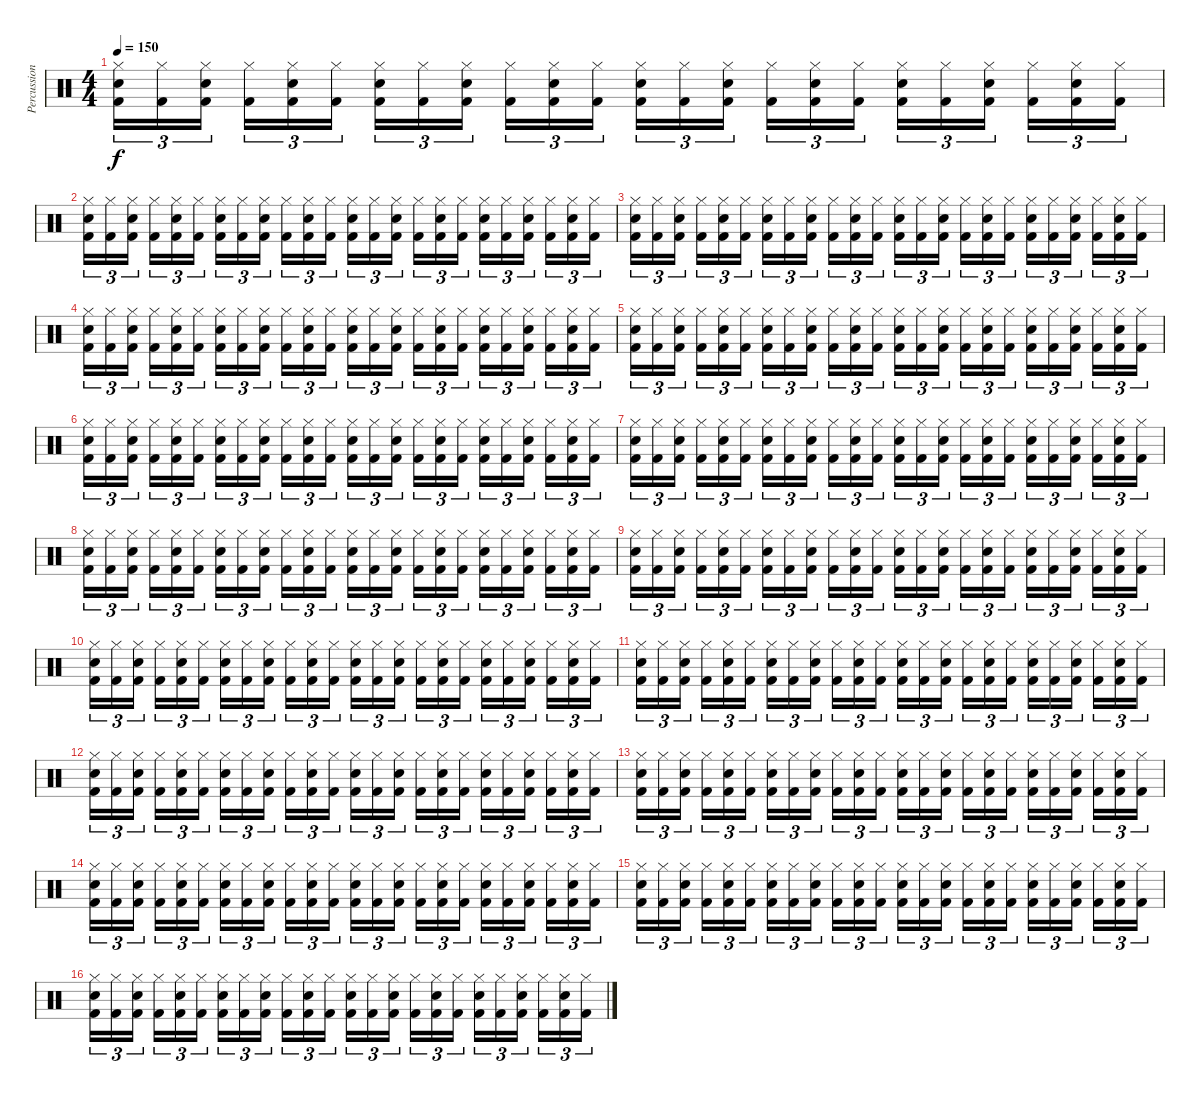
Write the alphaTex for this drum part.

\track ("Percussions" "Percussion") {instrument percussion}
\staff {score}
\articulation defaults
\ts (4 4)
\tempo 150
\clef neutral
\ks c
("Kick (hit) 2" "Electric Snare (hit)" "Hi-Hat (closed)").16{tu (3 2) dy f} ("Kick (hit) 2" "Hi-Hat (closed)").16{tu (3 2)} ("Kick (hit) 2" "Electric Snare (hit)" "Hi-Hat (closed)").16{tu (3 2) beam splitsecondary} ("Kick (hit) 2" "Hi-Hat (closed)").16{tu (3 2)} ("Kick (hit) 2" "Electric Snare (hit)" "Hi-Hat (closed)").16{tu (3 2)} ("Kick (hit) 2" "Hi-Hat (closed)").16{tu (3 2)} ("Kick (hit) 2" "Electric Snare (hit)" "Hi-Hat (closed)").16{tu (3 2)} ("Kick (hit) 2" "Hi-Hat (closed)").16{tu (3 2)} ("Kick (hit) 2" "Electric Snare (hit)" "Hi-Hat (closed)").16{tu (3 2) beam splitsecondary} ("Kick (hit) 2" "Hi-Hat (closed)").16{tu (3 2)} ("Kick (hit) 2" "Electric Snare (hit)" "Hi-Hat (closed)").16{tu (3 2)} ("Kick (hit) 2" "Hi-Hat (closed)").16{tu (3 2)} ("Kick (hit) 2" "Electric Snare (hit)" "Hi-Hat (closed)").16{tu (3 2)} ("Kick (hit) 2" "Hi-Hat (closed)").16{tu (3 2)} ("Kick (hit) 2" "Electric Snare (hit)" "Hi-Hat (closed)").16{tu (3 2) beam splitsecondary} ("Kick (hit) 2" "Hi-Hat (closed)").16{tu (3 2)} ("Kick (hit) 2" "Electric Snare (hit)" "Hi-Hat (closed)").16{tu (3 2)} ("Kick (hit) 2" "Hi-Hat (closed)").16{tu (3 2)} ("Kick (hit) 2" "Electric Snare (hit)" "Hi-Hat (closed)").16{tu (3 2)} ("Kick (hit) 2" "Hi-Hat (closed)").16{tu (3 2)} ("Kick (hit) 2" "Electric Snare (hit)" "Hi-Hat (closed)").16{tu (3 2) beam splitsecondary} ("Kick (hit) 2" "Hi-Hat (closed)").16{tu (3 2)} ("Kick (hit) 2" "Electric Snare (hit)" "Hi-Hat (closed)").16{tu (3 2)} ("Kick (hit) 2" "Hi-Hat (closed)").16{tu (3 2)} |
("Kick (hit) 2" "Electric Snare (hit)" "Hi-Hat (closed)").16{tu (3 2)} ("Kick (hit) 2" "Hi-Hat (closed)").16{tu (3 2)} ("Kick (hit) 2" "Electric Snare (hit)" "Hi-Hat (closed)").16{tu (3 2) beam splitsecondary} ("Kick (hit) 2" "Hi-Hat (closed)").16{tu (3 2)} ("Kick (hit) 2" "Electric Snare (hit)" "Hi-Hat (closed)").16{tu (3 2)} ("Kick (hit) 2" "Hi-Hat (closed)").16{tu (3 2)} ("Kick (hit) 2" "Electric Snare (hit)" "Hi-Hat (closed)").16{tu (3 2)} ("Kick (hit) 2" "Hi-Hat (closed)").16{tu (3 2)} ("Kick (hit) 2" "Electric Snare (hit)" "Hi-Hat (closed)").16{tu (3 2) beam splitsecondary} ("Kick (hit) 2" "Hi-Hat (closed)").16{tu (3 2)} ("Kick (hit) 2" "Electric Snare (hit)" "Hi-Hat (closed)").16{tu (3 2)} ("Kick (hit) 2" "Hi-Hat (closed)").16{tu (3 2)} ("Kick (hit) 2" "Electric Snare (hit)" "Hi-Hat (closed)").16{tu (3 2)} ("Kick (hit) 2" "Hi-Hat (closed)").16{tu (3 2)} ("Kick (hit) 2" "Electric Snare (hit)" "Hi-Hat (closed)").16{tu (3 2) beam splitsecondary} ("Kick (hit) 2" "Hi-Hat (closed)").16{tu (3 2)} ("Kick (hit) 2" "Electric Snare (hit)" "Hi-Hat (closed)").16{tu (3 2)} ("Kick (hit) 2" "Hi-Hat (closed)").16{tu (3 2)} ("Kick (hit) 2" "Electric Snare (hit)" "Hi-Hat (closed)").16{tu (3 2)} ("Kick (hit) 2" "Hi-Hat (closed)").16{tu (3 2)} ("Kick (hit) 2" "Electric Snare (hit)" "Hi-Hat (closed)").16{tu (3 2) beam splitsecondary} ("Kick (hit) 2" "Hi-Hat (closed)").16{tu (3 2)} ("Kick (hit) 2" "Electric Snare (hit)" "Hi-Hat (closed)").16{tu (3 2)} ("Kick (hit) 2" "Hi-Hat (closed)").16{tu (3 2)} |
("Kick (hit) 2" "Electric Snare (hit)" "Hi-Hat (closed)").16{tu (3 2)} ("Kick (hit) 2" "Hi-Hat (closed)").16{tu (3 2)} ("Kick (hit) 2" "Electric Snare (hit)" "Hi-Hat (closed)").16{tu (3 2) beam splitsecondary} ("Kick (hit) 2" "Hi-Hat (closed)").16{tu (3 2)} ("Kick (hit) 2" "Electric Snare (hit)" "Hi-Hat (closed)").16{tu (3 2)} ("Kick (hit) 2" "Hi-Hat (closed)").16{tu (3 2)} ("Kick (hit) 2" "Electric Snare (hit)" "Hi-Hat (closed)").16{tu (3 2)} ("Kick (hit) 2" "Hi-Hat (closed)").16{tu (3 2)} ("Kick (hit) 2" "Electric Snare (hit)" "Hi-Hat (closed)").16{tu (3 2) beam splitsecondary} ("Kick (hit) 2" "Hi-Hat (closed)").16{tu (3 2)} ("Kick (hit) 2" "Electric Snare (hit)" "Hi-Hat (closed)").16{tu (3 2)} ("Kick (hit) 2" "Hi-Hat (closed)").16{tu (3 2)} ("Kick (hit) 2" "Electric Snare (hit)" "Hi-Hat (closed)").16{tu (3 2)} ("Kick (hit) 2" "Hi-Hat (closed)").16{tu (3 2)} ("Kick (hit) 2" "Electric Snare (hit)" "Hi-Hat (closed)").16{tu (3 2) beam splitsecondary} ("Kick (hit) 2" "Hi-Hat (closed)").16{tu (3 2)} ("Kick (hit) 2" "Electric Snare (hit)" "Hi-Hat (closed)").16{tu (3 2)} ("Kick (hit) 2" "Hi-Hat (closed)").16{tu (3 2)} ("Kick (hit) 2" "Electric Snare (hit)" "Hi-Hat (closed)").16{tu (3 2)} ("Kick (hit) 2" "Hi-Hat (closed)").16{tu (3 2)} ("Kick (hit) 2" "Electric Snare (hit)" "Hi-Hat (closed)").16{tu (3 2) beam splitsecondary} ("Kick (hit) 2" "Hi-Hat (closed)").16{tu (3 2)} ("Kick (hit) 2" "Electric Snare (hit)" "Hi-Hat (closed)").16{tu (3 2)} ("Kick (hit) 2" "Hi-Hat (closed)").16{tu (3 2)} |
("Kick (hit) 2" "Electric Snare (hit)" "Hi-Hat (closed)").16{tu (3 2)} ("Kick (hit) 2" "Hi-Hat (closed)").16{tu (3 2)} ("Kick (hit) 2" "Electric Snare (hit)" "Hi-Hat (closed)").16{tu (3 2) beam splitsecondary} ("Kick (hit) 2" "Hi-Hat (closed)").16{tu (3 2)} ("Kick (hit) 2" "Electric Snare (hit)" "Hi-Hat (closed)").16{tu (3 2)} ("Kick (hit) 2" "Hi-Hat (closed)").16{tu (3 2)} ("Kick (hit) 2" "Electric Snare (hit)" "Hi-Hat (closed)").16{tu (3 2)} ("Kick (hit) 2" "Hi-Hat (closed)").16{tu (3 2)} ("Kick (hit) 2" "Electric Snare (hit)" "Hi-Hat (closed)").16{tu (3 2) beam splitsecondary} ("Kick (hit) 2" "Hi-Hat (closed)").16{tu (3 2)} ("Kick (hit) 2" "Electric Snare (hit)" "Hi-Hat (closed)").16{tu (3 2)} ("Kick (hit) 2" "Hi-Hat (closed)").16{tu (3 2)} ("Kick (hit) 2" "Electric Snare (hit)" "Hi-Hat (closed)").16{tu (3 2)} ("Kick (hit) 2" "Hi-Hat (closed)").16{tu (3 2)} ("Kick (hit) 2" "Electric Snare (hit)" "Hi-Hat (closed)").16{tu (3 2) beam splitsecondary} ("Kick (hit) 2" "Hi-Hat (closed)").16{tu (3 2)} ("Kick (hit) 2" "Electric Snare (hit)" "Hi-Hat (closed)").16{tu (3 2)} ("Kick (hit) 2" "Hi-Hat (closed)").16{tu (3 2)} ("Kick (hit) 2" "Electric Snare (hit)" "Hi-Hat (closed)").16{tu (3 2)} ("Kick (hit) 2" "Hi-Hat (closed)").16{tu (3 2)} ("Kick (hit) 2" "Electric Snare (hit)" "Hi-Hat (closed)").16{tu (3 2) beam splitsecondary} ("Kick (hit) 2" "Hi-Hat (closed)").16{tu (3 2)} ("Kick (hit) 2" "Electric Snare (hit)" "Hi-Hat (closed)").16{tu (3 2)} ("Kick (hit) 2" "Hi-Hat (closed)").16{tu (3 2)} |
("Kick (hit) 2" "Electric Snare (hit)" "Hi-Hat (closed)").16{tu (3 2)} ("Kick (hit) 2" "Hi-Hat (closed)").16{tu (3 2)} ("Kick (hit) 2" "Electric Snare (hit)" "Hi-Hat (closed)").16{tu (3 2) beam splitsecondary} ("Kick (hit) 2" "Hi-Hat (closed)").16{tu (3 2)} ("Kick (hit) 2" "Electric Snare (hit)" "Hi-Hat (closed)").16{tu (3 2)} ("Kick (hit) 2" "Hi-Hat (closed)").16{tu (3 2)} ("Kick (hit) 2" "Electric Snare (hit)" "Hi-Hat (closed)").16{tu (3 2)} ("Kick (hit) 2" "Hi-Hat (closed)").16{tu (3 2)} ("Kick (hit) 2" "Electric Snare (hit)" "Hi-Hat (closed)").16{tu (3 2) beam splitsecondary} ("Kick (hit) 2" "Hi-Hat (closed)").16{tu (3 2)} ("Kick (hit) 2" "Electric Snare (hit)" "Hi-Hat (closed)").16{tu (3 2)} ("Kick (hit) 2" "Hi-Hat (closed)").16{tu (3 2)} ("Kick (hit) 2" "Electric Snare (hit)" "Hi-Hat (closed)").16{tu (3 2)} ("Kick (hit) 2" "Hi-Hat (closed)").16{tu (3 2)} ("Kick (hit) 2" "Electric Snare (hit)" "Hi-Hat (closed)").16{tu (3 2) beam splitsecondary} ("Kick (hit) 2" "Hi-Hat (closed)").16{tu (3 2)} ("Kick (hit) 2" "Electric Snare (hit)" "Hi-Hat (closed)").16{tu (3 2)} ("Kick (hit) 2" "Hi-Hat (closed)").16{tu (3 2)} ("Kick (hit) 2" "Electric Snare (hit)" "Hi-Hat (closed)").16{tu (3 2)} ("Kick (hit) 2" "Hi-Hat (closed)").16{tu (3 2)} ("Kick (hit) 2" "Electric Snare (hit)" "Hi-Hat (closed)").16{tu (3 2) beam splitsecondary} ("Kick (hit) 2" "Hi-Hat (closed)").16{tu (3 2)} ("Kick (hit) 2" "Electric Snare (hit)" "Hi-Hat (closed)").16{tu (3 2)} ("Kick (hit) 2" "Hi-Hat (closed)").16{tu (3 2)} |
("Kick (hit) 2" "Electric Snare (hit)" "Hi-Hat (closed)").16{tu (3 2)} ("Kick (hit) 2" "Hi-Hat (closed)").16{tu (3 2)} ("Kick (hit) 2" "Electric Snare (hit)" "Hi-Hat (closed)").16{tu (3 2) beam splitsecondary} ("Kick (hit) 2" "Hi-Hat (closed)").16{tu (3 2)} ("Kick (hit) 2" "Electric Snare (hit)" "Hi-Hat (closed)").16{tu (3 2)} ("Kick (hit) 2" "Hi-Hat (closed)").16{tu (3 2)} ("Kick (hit) 2" "Electric Snare (hit)" "Hi-Hat (closed)").16{tu (3 2)} ("Kick (hit) 2" "Hi-Hat (closed)").16{tu (3 2)} ("Kick (hit) 2" "Electric Snare (hit)" "Hi-Hat (closed)").16{tu (3 2) beam splitsecondary} ("Kick (hit) 2" "Hi-Hat (closed)").16{tu (3 2)} ("Kick (hit) 2" "Electric Snare (hit)" "Hi-Hat (closed)").16{tu (3 2)} ("Kick (hit) 2" "Hi-Hat (closed)").16{tu (3 2)} ("Kick (hit) 2" "Electric Snare (hit)" "Hi-Hat (closed)").16{tu (3 2)} ("Kick (hit) 2" "Hi-Hat (closed)").16{tu (3 2)} ("Kick (hit) 2" "Electric Snare (hit)" "Hi-Hat (closed)").16{tu (3 2) beam splitsecondary} ("Kick (hit) 2" "Hi-Hat (closed)").16{tu (3 2)} ("Kick (hit) 2" "Electric Snare (hit)" "Hi-Hat (closed)").16{tu (3 2)} ("Kick (hit) 2" "Hi-Hat (closed)").16{tu (3 2)} ("Kick (hit) 2" "Electric Snare (hit)" "Hi-Hat (closed)").16{tu (3 2)} ("Kick (hit) 2" "Hi-Hat (closed)").16{tu (3 2)} ("Kick (hit) 2" "Electric Snare (hit)" "Hi-Hat (closed)").16{tu (3 2) beam splitsecondary} ("Kick (hit) 2" "Hi-Hat (closed)").16{tu (3 2)} ("Kick (hit) 2" "Electric Snare (hit)" "Hi-Hat (closed)").16{tu (3 2)} ("Kick (hit) 2" "Hi-Hat (closed)").16{tu (3 2)} |
("Kick (hit) 2" "Electric Snare (hit)" "Hi-Hat (closed)").16{tu (3 2)} ("Kick (hit) 2" "Hi-Hat (closed)").16{tu (3 2)} ("Kick (hit) 2" "Electric Snare (hit)" "Hi-Hat (closed)").16{tu (3 2) beam splitsecondary} ("Kick (hit) 2" "Hi-Hat (closed)").16{tu (3 2)} ("Kick (hit) 2" "Electric Snare (hit)" "Hi-Hat (closed)").16{tu (3 2)} ("Kick (hit) 2" "Hi-Hat (closed)").16{tu (3 2)} ("Kick (hit) 2" "Electric Snare (hit)" "Hi-Hat (closed)").16{tu (3 2)} ("Kick (hit) 2" "Hi-Hat (closed)").16{tu (3 2)} ("Kick (hit) 2" "Electric Snare (hit)" "Hi-Hat (closed)").16{tu (3 2) beam splitsecondary} ("Kick (hit) 2" "Hi-Hat (closed)").16{tu (3 2)} ("Kick (hit) 2" "Electric Snare (hit)" "Hi-Hat (closed)").16{tu (3 2)} ("Kick (hit) 2" "Hi-Hat (closed)").16{tu (3 2)} ("Kick (hit) 2" "Electric Snare (hit)" "Hi-Hat (closed)").16{tu (3 2)} ("Kick (hit) 2" "Hi-Hat (closed)").16{tu (3 2)} ("Kick (hit) 2" "Electric Snare (hit)" "Hi-Hat (closed)").16{tu (3 2) beam splitsecondary} ("Kick (hit) 2" "Hi-Hat (closed)").16{tu (3 2)} ("Kick (hit) 2" "Electric Snare (hit)" "Hi-Hat (closed)").16{tu (3 2)} ("Kick (hit) 2" "Hi-Hat (closed)").16{tu (3 2)} ("Kick (hit) 2" "Electric Snare (hit)" "Hi-Hat (closed)").16{tu (3 2)} ("Kick (hit) 2" "Hi-Hat (closed)").16{tu (3 2)} ("Kick (hit) 2" "Electric Snare (hit)" "Hi-Hat (closed)").16{tu (3 2) beam splitsecondary} ("Kick (hit) 2" "Hi-Hat (closed)").16{tu (3 2)} ("Kick (hit) 2" "Electric Snare (hit)" "Hi-Hat (closed)").16{tu (3 2)} ("Kick (hit) 2" "Hi-Hat (closed)").16{tu (3 2)} |
("Kick (hit) 2" "Electric Snare (hit)" "Hi-Hat (closed)").16{tu (3 2)} ("Kick (hit) 2" "Hi-Hat (closed)").16{tu (3 2)} ("Kick (hit) 2" "Electric Snare (hit)" "Hi-Hat (closed)").16{tu (3 2) beam splitsecondary} ("Kick (hit) 2" "Hi-Hat (closed)").16{tu (3 2)} ("Kick (hit) 2" "Electric Snare (hit)" "Hi-Hat (closed)").16{tu (3 2)} ("Kick (hit) 2" "Hi-Hat (closed)").16{tu (3 2)} ("Kick (hit) 2" "Electric Snare (hit)" "Hi-Hat (closed)").16{tu (3 2)} ("Kick (hit) 2" "Hi-Hat (closed)").16{tu (3 2)} ("Kick (hit) 2" "Electric Snare (hit)" "Hi-Hat (closed)").16{tu (3 2) beam splitsecondary} ("Kick (hit) 2" "Hi-Hat (closed)").16{tu (3 2)} ("Kick (hit) 2" "Electric Snare (hit)" "Hi-Hat (closed)").16{tu (3 2)} ("Kick (hit) 2" "Hi-Hat (closed)").16{tu (3 2)} ("Kick (hit) 2" "Electric Snare (hit)" "Hi-Hat (closed)").16{tu (3 2)} ("Kick (hit) 2" "Hi-Hat (closed)").16{tu (3 2)} ("Kick (hit) 2" "Electric Snare (hit)" "Hi-Hat (closed)").16{tu (3 2) beam splitsecondary} ("Kick (hit) 2" "Hi-Hat (closed)").16{tu (3 2)} ("Kick (hit) 2" "Electric Snare (hit)" "Hi-Hat (closed)").16{tu (3 2)} ("Kick (hit) 2" "Hi-Hat (closed)").16{tu (3 2)} ("Kick (hit) 2" "Electric Snare (hit)" "Hi-Hat (closed)").16{tu (3 2)} ("Kick (hit) 2" "Hi-Hat (closed)").16{tu (3 2)} ("Kick (hit) 2" "Electric Snare (hit)" "Hi-Hat (closed)").16{tu (3 2) beam splitsecondary} ("Kick (hit) 2" "Hi-Hat (closed)").16{tu (3 2)} ("Kick (hit) 2" "Electric Snare (hit)" "Hi-Hat (closed)").16{tu (3 2)} ("Kick (hit) 2" "Hi-Hat (closed)").16{tu (3 2)} |
("Kick (hit) 2" "Electric Snare (hit)" "Hi-Hat (closed)").16{tu (3 2)} ("Kick (hit) 2" "Hi-Hat (closed)").16{tu (3 2)} ("Kick (hit) 2" "Electric Snare (hit)" "Hi-Hat (closed)").16{tu (3 2) beam splitsecondary} ("Kick (hit) 2" "Hi-Hat (closed)").16{tu (3 2)} ("Kick (hit) 2" "Electric Snare (hit)" "Hi-Hat (closed)").16{tu (3 2)} ("Kick (hit) 2" "Hi-Hat (closed)").16{tu (3 2)} ("Kick (hit) 2" "Electric Snare (hit)" "Hi-Hat (closed)").16{tu (3 2)} ("Kick (hit) 2" "Hi-Hat (closed)").16{tu (3 2)} ("Kick (hit) 2" "Electric Snare (hit)" "Hi-Hat (closed)").16{tu (3 2) beam splitsecondary} ("Kick (hit) 2" "Hi-Hat (closed)").16{tu (3 2)} ("Kick (hit) 2" "Electric Snare (hit)" "Hi-Hat (closed)").16{tu (3 2)} ("Kick (hit) 2" "Hi-Hat (closed)").16{tu (3 2)} ("Kick (hit) 2" "Electric Snare (hit)" "Hi-Hat (closed)").16{tu (3 2)} ("Kick (hit) 2" "Hi-Hat (closed)").16{tu (3 2)} ("Kick (hit) 2" "Electric Snare (hit)" "Hi-Hat (closed)").16{tu (3 2) beam splitsecondary} ("Kick (hit) 2" "Hi-Hat (closed)").16{tu (3 2)} ("Kick (hit) 2" "Electric Snare (hit)" "Hi-Hat (closed)").16{tu (3 2)} ("Kick (hit) 2" "Hi-Hat (closed)").16{tu (3 2)} ("Kick (hit) 2" "Electric Snare (hit)" "Hi-Hat (closed)").16{tu (3 2)} ("Kick (hit) 2" "Hi-Hat (closed)").16{tu (3 2)} ("Kick (hit) 2" "Electric Snare (hit)" "Hi-Hat (closed)").16{tu (3 2) beam splitsecondary} ("Kick (hit) 2" "Hi-Hat (closed)").16{tu (3 2)} ("Kick (hit) 2" "Electric Snare (hit)" "Hi-Hat (closed)").16{tu (3 2)} ("Kick (hit) 2" "Hi-Hat (closed)").16{tu (3 2)} |
("Kick (hit) 2" "Electric Snare (hit)" "Hi-Hat (closed)").16{tu (3 2)} ("Kick (hit) 2" "Hi-Hat (closed)").16{tu (3 2)} ("Kick (hit) 2" "Electric Snare (hit)" "Hi-Hat (closed)").16{tu (3 2) beam splitsecondary} ("Kick (hit) 2" "Hi-Hat (closed)").16{tu (3 2)} ("Kick (hit) 2" "Electric Snare (hit)" "Hi-Hat (closed)").16{tu (3 2)} ("Kick (hit) 2" "Hi-Hat (closed)").16{tu (3 2)} ("Kick (hit) 2" "Electric Snare (hit)" "Hi-Hat (closed)").16{tu (3 2)} ("Kick (hit) 2" "Hi-Hat (closed)").16{tu (3 2)} ("Kick (hit) 2" "Electric Snare (hit)" "Hi-Hat (closed)").16{tu (3 2) beam splitsecondary} ("Kick (hit) 2" "Hi-Hat (closed)").16{tu (3 2)} ("Kick (hit) 2" "Electric Snare (hit)" "Hi-Hat (closed)").16{tu (3 2)} ("Kick (hit) 2" "Hi-Hat (closed)").16{tu (3 2)} ("Kick (hit) 2" "Electric Snare (hit)" "Hi-Hat (closed)").16{tu (3 2)} ("Kick (hit) 2" "Hi-Hat (closed)").16{tu (3 2)} ("Kick (hit) 2" "Electric Snare (hit)" "Hi-Hat (closed)").16{tu (3 2) beam splitsecondary} ("Kick (hit) 2" "Hi-Hat (closed)").16{tu (3 2)} ("Kick (hit) 2" "Electric Snare (hit)" "Hi-Hat (closed)").16{tu (3 2)} ("Kick (hit) 2" "Hi-Hat (closed)").16{tu (3 2)} ("Kick (hit) 2" "Electric Snare (hit)" "Hi-Hat (closed)").16{tu (3 2)} ("Kick (hit) 2" "Hi-Hat (closed)").16{tu (3 2)} ("Kick (hit) 2" "Electric Snare (hit)" "Hi-Hat (closed)").16{tu (3 2) beam splitsecondary} ("Kick (hit) 2" "Hi-Hat (closed)").16{tu (3 2)} ("Kick (hit) 2" "Electric Snare (hit)" "Hi-Hat (closed)").16{tu (3 2)} ("Kick (hit) 2" "Hi-Hat (closed)").16{tu (3 2)} |
("Kick (hit) 2" "Electric Snare (hit)" "Hi-Hat (closed)").16{tu (3 2)} ("Kick (hit) 2" "Hi-Hat (closed)").16{tu (3 2)} ("Kick (hit) 2" "Electric Snare (hit)" "Hi-Hat (closed)").16{tu (3 2) beam splitsecondary} ("Kick (hit) 2" "Hi-Hat (closed)").16{tu (3 2)} ("Kick (hit) 2" "Electric Snare (hit)" "Hi-Hat (closed)").16{tu (3 2)} ("Kick (hit) 2" "Hi-Hat (closed)").16{tu (3 2)} ("Kick (hit) 2" "Electric Snare (hit)" "Hi-Hat (closed)").16{tu (3 2)} ("Kick (hit) 2" "Hi-Hat (closed)").16{tu (3 2)} ("Kick (hit) 2" "Electric Snare (hit)" "Hi-Hat (closed)").16{tu (3 2) beam splitsecondary} ("Kick (hit) 2" "Hi-Hat (closed)").16{tu (3 2)} ("Kick (hit) 2" "Electric Snare (hit)" "Hi-Hat (closed)").16{tu (3 2)} ("Kick (hit) 2" "Hi-Hat (closed)").16{tu (3 2)} ("Kick (hit) 2" "Electric Snare (hit)" "Hi-Hat (closed)").16{tu (3 2)} ("Kick (hit) 2" "Hi-Hat (closed)").16{tu (3 2)} ("Kick (hit) 2" "Electric Snare (hit)" "Hi-Hat (closed)").16{tu (3 2) beam splitsecondary} ("Kick (hit) 2" "Hi-Hat (closed)").16{tu (3 2)} ("Kick (hit) 2" "Electric Snare (hit)" "Hi-Hat (closed)").16{tu (3 2)} ("Kick (hit) 2" "Hi-Hat (closed)").16{tu (3 2)} ("Kick (hit) 2" "Electric Snare (hit)" "Hi-Hat (closed)").16{tu (3 2)} ("Kick (hit) 2" "Hi-Hat (closed)").16{tu (3 2)} ("Kick (hit) 2" "Electric Snare (hit)" "Hi-Hat (closed)").16{tu (3 2) beam splitsecondary} ("Kick (hit) 2" "Hi-Hat (closed)").16{tu (3 2)} ("Kick (hit) 2" "Electric Snare (hit)" "Hi-Hat (closed)").16{tu (3 2)} ("Kick (hit) 2" "Hi-Hat (closed)").16{tu (3 2)} |
("Kick (hit) 2" "Electric Snare (hit)" "Hi-Hat (closed)").16{tu (3 2)} ("Kick (hit) 2" "Hi-Hat (closed)").16{tu (3 2)} ("Kick (hit) 2" "Electric Snare (hit)" "Hi-Hat (closed)").16{tu (3 2) beam splitsecondary} ("Kick (hit) 2" "Hi-Hat (closed)").16{tu (3 2)} ("Kick (hit) 2" "Electric Snare (hit)" "Hi-Hat (closed)").16{tu (3 2)} ("Kick (hit) 2" "Hi-Hat (closed)").16{tu (3 2)} ("Kick (hit) 2" "Electric Snare (hit)" "Hi-Hat (closed)").16{tu (3 2)} ("Kick (hit) 2" "Hi-Hat (closed)").16{tu (3 2)} ("Kick (hit) 2" "Electric Snare (hit)" "Hi-Hat (closed)").16{tu (3 2) beam splitsecondary} ("Kick (hit) 2" "Hi-Hat (closed)").16{tu (3 2)} ("Kick (hit) 2" "Electric Snare (hit)" "Hi-Hat (closed)").16{tu (3 2)} ("Kick (hit) 2" "Hi-Hat (closed)").16{tu (3 2)} ("Kick (hit) 2" "Electric Snare (hit)" "Hi-Hat (closed)").16{tu (3 2)} ("Kick (hit) 2" "Hi-Hat (closed)").16{tu (3 2)} ("Kick (hit) 2" "Electric Snare (hit)" "Hi-Hat (closed)").16{tu (3 2) beam splitsecondary} ("Kick (hit) 2" "Hi-Hat (closed)").16{tu (3 2)} ("Kick (hit) 2" "Electric Snare (hit)" "Hi-Hat (closed)").16{tu (3 2)} ("Kick (hit) 2" "Hi-Hat (closed)").16{tu (3 2)} ("Kick (hit) 2" "Electric Snare (hit)" "Hi-Hat (closed)").16{tu (3 2)} ("Kick (hit) 2" "Hi-Hat (closed)").16{tu (3 2)} ("Kick (hit) 2" "Electric Snare (hit)" "Hi-Hat (closed)").16{tu (3 2) beam splitsecondary} ("Kick (hit) 2" "Hi-Hat (closed)").16{tu (3 2)} ("Kick (hit) 2" "Electric Snare (hit)" "Hi-Hat (closed)").16{tu (3 2)} ("Kick (hit) 2" "Hi-Hat (closed)").16{tu (3 2)} |
("Kick (hit) 2" "Electric Snare (hit)" "Hi-Hat (closed)").16{tu (3 2)} ("Kick (hit) 2" "Hi-Hat (closed)").16{tu (3 2)} ("Kick (hit) 2" "Electric Snare (hit)" "Hi-Hat (closed)").16{tu (3 2) beam splitsecondary} ("Kick (hit) 2" "Hi-Hat (closed)").16{tu (3 2)} ("Kick (hit) 2" "Electric Snare (hit)" "Hi-Hat (closed)").16{tu (3 2)} ("Kick (hit) 2" "Hi-Hat (closed)").16{tu (3 2)} ("Kick (hit) 2" "Electric Snare (hit)" "Hi-Hat (closed)").16{tu (3 2)} ("Kick (hit) 2" "Hi-Hat (closed)").16{tu (3 2)} ("Kick (hit) 2" "Electric Snare (hit)" "Hi-Hat (closed)").16{tu (3 2) beam splitsecondary} ("Kick (hit) 2" "Hi-Hat (closed)").16{tu (3 2)} ("Kick (hit) 2" "Electric Snare (hit)" "Hi-Hat (closed)").16{tu (3 2)} ("Kick (hit) 2" "Hi-Hat (closed)").16{tu (3 2)} ("Kick (hit) 2" "Electric Snare (hit)" "Hi-Hat (closed)").16{tu (3 2)} ("Kick (hit) 2" "Hi-Hat (closed)").16{tu (3 2)} ("Kick (hit) 2" "Electric Snare (hit)" "Hi-Hat (closed)").16{tu (3 2) beam splitsecondary} ("Kick (hit) 2" "Hi-Hat (closed)").16{tu (3 2)} ("Kick (hit) 2" "Electric Snare (hit)" "Hi-Hat (closed)").16{tu (3 2)} ("Kick (hit) 2" "Hi-Hat (closed)").16{tu (3 2)} ("Kick (hit) 2" "Electric Snare (hit)" "Hi-Hat (closed)").16{tu (3 2)} ("Kick (hit) 2" "Hi-Hat (closed)").16{tu (3 2)} ("Kick (hit) 2" "Electric Snare (hit)" "Hi-Hat (closed)").16{tu (3 2) beam splitsecondary} ("Kick (hit) 2" "Hi-Hat (closed)").16{tu (3 2)} ("Kick (hit) 2" "Electric Snare (hit)" "Hi-Hat (closed)").16{tu (3 2)} ("Kick (hit) 2" "Hi-Hat (closed)").16{tu (3 2)} |
("Kick (hit) 2" "Electric Snare (hit)" "Hi-Hat (closed)").16{tu (3 2)} ("Kick (hit) 2" "Hi-Hat (closed)").16{tu (3 2)} ("Kick (hit) 2" "Electric Snare (hit)" "Hi-Hat (closed)").16{tu (3 2) beam splitsecondary} ("Kick (hit) 2" "Hi-Hat (closed)").16{tu (3 2)} ("Kick (hit) 2" "Electric Snare (hit)" "Hi-Hat (closed)").16{tu (3 2)} ("Kick (hit) 2" "Hi-Hat (closed)").16{tu (3 2)} ("Kick (hit) 2" "Electric Snare (hit)" "Hi-Hat (closed)").16{tu (3 2)} ("Kick (hit) 2" "Hi-Hat (closed)").16{tu (3 2)} ("Kick (hit) 2" "Electric Snare (hit)" "Hi-Hat (closed)").16{tu (3 2) beam splitsecondary} ("Kick (hit) 2" "Hi-Hat (closed)").16{tu (3 2)} ("Kick (hit) 2" "Electric Snare (hit)" "Hi-Hat (closed)").16{tu (3 2)} ("Kick (hit) 2" "Hi-Hat (closed)").16{tu (3 2)} ("Kick (hit) 2" "Electric Snare (hit)" "Hi-Hat (closed)").16{tu (3 2)} ("Kick (hit) 2" "Hi-Hat (closed)").16{tu (3 2)} ("Kick (hit) 2" "Electric Snare (hit)" "Hi-Hat (closed)").16{tu (3 2) beam splitsecondary} ("Kick (hit) 2" "Hi-Hat (closed)").16{tu (3 2)} ("Kick (hit) 2" "Electric Snare (hit)" "Hi-Hat (closed)").16{tu (3 2)} ("Kick (hit) 2" "Hi-Hat (closed)").16{tu (3 2)} ("Kick (hit) 2" "Electric Snare (hit)" "Hi-Hat (closed)").16{tu (3 2)} ("Kick (hit) 2" "Hi-Hat (closed)").16{tu (3 2)} ("Kick (hit) 2" "Electric Snare (hit)" "Hi-Hat (closed)").16{tu (3 2) beam splitsecondary} ("Kick (hit) 2" "Hi-Hat (closed)").16{tu (3 2)} ("Kick (hit) 2" "Electric Snare (hit)" "Hi-Hat (closed)").16{tu (3 2)} ("Kick (hit) 2" "Hi-Hat (closed)").16{tu (3 2)} |
("Kick (hit) 2" "Electric Snare (hit)" "Hi-Hat (closed)").16{tu (3 2)} ("Kick (hit) 2" "Hi-Hat (closed)").16{tu (3 2)} ("Kick (hit) 2" "Electric Snare (hit)" "Hi-Hat (closed)").16{tu (3 2) beam splitsecondary} ("Kick (hit) 2" "Hi-Hat (closed)").16{tu (3 2)} ("Kick (hit) 2" "Electric Snare (hit)" "Hi-Hat (closed)").16{tu (3 2)} ("Kick (hit) 2" "Hi-Hat (closed)").16{tu (3 2)} ("Kick (hit) 2" "Electric Snare (hit)" "Hi-Hat (closed)").16{tu (3 2)} ("Kick (hit) 2" "Hi-Hat (closed)").16{tu (3 2)} ("Kick (hit) 2" "Electric Snare (hit)" "Hi-Hat (closed)").16{tu (3 2) beam splitsecondary} ("Kick (hit) 2" "Hi-Hat (closed)").16{tu (3 2)} ("Kick (hit) 2" "Electric Snare (hit)" "Hi-Hat (closed)").16{tu (3 2)} ("Kick (hit) 2" "Hi-Hat (closed)").16{tu (3 2)} ("Kick (hit) 2" "Electric Snare (hit)" "Hi-Hat (closed)").16{tu (3 2)} ("Kick (hit) 2" "Hi-Hat (closed)").16{tu (3 2)} ("Kick (hit) 2" "Electric Snare (hit)" "Hi-Hat (closed)").16{tu (3 2) beam splitsecondary} ("Kick (hit) 2" "Hi-Hat (closed)").16{tu (3 2)} ("Kick (hit) 2" "Electric Snare (hit)" "Hi-Hat (closed)").16{tu (3 2)} ("Kick (hit) 2" "Hi-Hat (closed)").16{tu (3 2)} ("Kick (hit) 2" "Electric Snare (hit)" "Hi-Hat (closed)").16{tu (3 2)} ("Kick (hit) 2" "Hi-Hat (closed)").16{tu (3 2)} ("Kick (hit) 2" "Electric Snare (hit)" "Hi-Hat (closed)").16{tu (3 2) beam splitsecondary} ("Kick (hit) 2" "Hi-Hat (closed)").16{tu (3 2)} ("Kick (hit) 2" "Electric Snare (hit)" "Hi-Hat (closed)").16{tu (3 2)} ("Kick (hit) 2" "Hi-Hat (closed)").16{tu (3 2)} |
("Kick (hit) 2" "Electric Snare (hit)" "Hi-Hat (closed)").16{tu (3 2)} ("Kick (hit) 2" "Hi-Hat (closed)").16{tu (3 2)} ("Kick (hit) 2" "Electric Snare (hit)" "Hi-Hat (closed)").16{tu (3 2) beam splitsecondary} ("Kick (hit) 2" "Hi-Hat (closed)").16{tu (3 2)} ("Kick (hit) 2" "Electric Snare (hit)" "Hi-Hat (closed)").16{tu (3 2)} ("Kick (hit) 2" "Hi-Hat (closed)").16{tu (3 2)} ("Kick (hit) 2" "Electric Snare (hit)" "Hi-Hat (closed)").16{tu (3 2)} ("Kick (hit) 2" "Hi-Hat (closed)").16{tu (3 2)} ("Kick (hit) 2" "Electric Snare (hit)" "Hi-Hat (closed)").16{tu (3 2) beam splitsecondary} ("Kick (hit) 2" "Hi-Hat (closed)").16{tu (3 2)} ("Kick (hit) 2" "Electric Snare (hit)" "Hi-Hat (closed)").16{tu (3 2)} ("Kick (hit) 2" "Hi-Hat (closed)").16{tu (3 2)} ("Kick (hit) 2" "Electric Snare (hit)" "Hi-Hat (closed)").16{tu (3 2)} ("Kick (hit) 2" "Hi-Hat (closed)").16{tu (3 2)} ("Kick (hit) 2" "Electric Snare (hit)" "Hi-Hat (closed)").16{tu (3 2) beam splitsecondary} ("Kick (hit) 2" "Hi-Hat (closed)").16{tu (3 2)} ("Kick (hit) 2" "Electric Snare (hit)" "Hi-Hat (closed)").16{tu (3 2)} ("Kick (hit) 2" "Hi-Hat (closed)").16{tu (3 2)} ("Kick (hit) 2" "Electric Snare (hit)" "Hi-Hat (closed)").16{tu (3 2)} ("Kick (hit) 2" "Hi-Hat (closed)").16{tu (3 2)} ("Kick (hit) 2" "Electric Snare (hit)" "Hi-Hat (closed)").16{tu (3 2) beam splitsecondary} ("Kick (hit) 2" "Hi-Hat (closed)").16{tu (3 2)} ("Kick (hit) 2" "Electric Snare (hit)" "Hi-Hat (closed)").16{tu (3 2)} ("Kick (hit) 2" "Hi-Hat (closed)").16{tu (3 2)}
